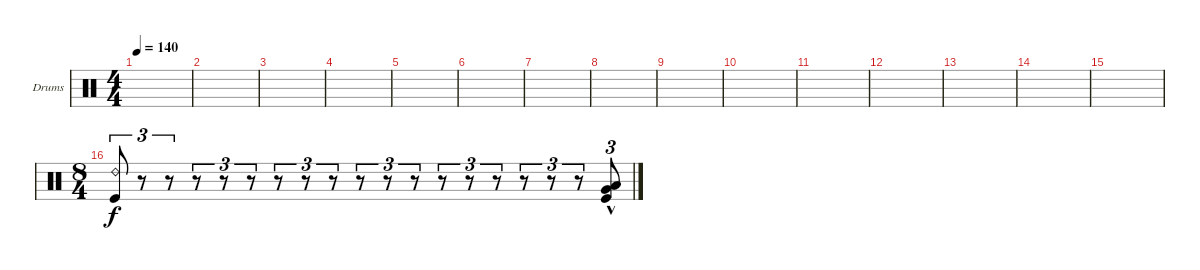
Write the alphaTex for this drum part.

\defaultSystemsLayout 4
\bracketExtendMode groupsimilarinstruments
\firstSystemTrackNameOrientation horizontal
\otherSystemsTrackNameOrientation horizontal
\track ("Drumkit" "Drums") {instrument percussion}
\staff {score}
\articulation defaults
\ts (4 4)
\tempo 140
\clef neutral
\ks c
|
|
|
|
|
|
|
|
|
|
|
|
|
|
|
\ts (8 4)
("Kick (hit)" "Ride (bell) 2").8{tu (3 2)} r.8{tu (3 2)} r.8{tu (3 2)} r.8{tu (3 2)} r.8{tu (3 2)} r.8{tu (3 2)} r.8{tu (3 2)} r.8{tu (3 2)} r.8{tu (3 2)} r.8{tu (3 2)} r.8{tu (3 2)} r.8{tu (3 2)} r.8{tu (3 2)} r.8{tu (3 2)} r.8{tu (3 2)} r.8{tu (3 2)} r.8{tu (3 2)} r.8{tu (3 2)} ("Low Tom (hit)" "Very Low Tom (hit)" "Kick (hit)"{hac}).8{tu (3 2)}
